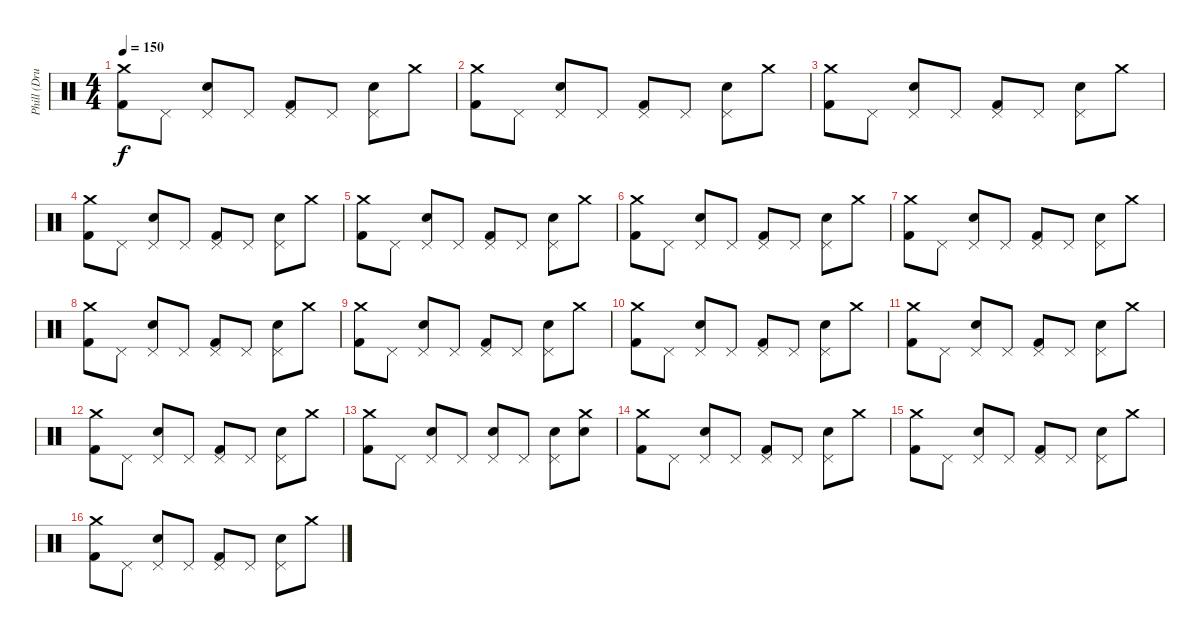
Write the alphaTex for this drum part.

\track ("Phill (Drums)" "Phill (Dru") {instrument percussion}
\staff {score}
\articulation defaults
\ts (4 4)
\tempo 150
\clef neutral
\ks c
("Kick (hit) 2" "Crash medium (hit)").8{dy f} "Pedal Hi-Hat (hit)".8 ("Snare (hit) 2" "Pedal Hi-Hat (hit)").8 "Pedal Hi-Hat (hit)".8 ("Kick (hit) 2" "Pedal Hi-Hat (hit)").8 "Pedal Hi-Hat (hit)".8 ("Snare (hit) 2" "Pedal Hi-Hat (hit)").8 "Crash medium (hit)".8 |
("Kick (hit) 2" "Crash medium (hit)").8 "Pedal Hi-Hat (hit)".8 ("Snare (hit) 2" "Pedal Hi-Hat (hit)").8 "Pedal Hi-Hat (hit)".8 ("Kick (hit) 2" "Pedal Hi-Hat (hit)").8 "Pedal Hi-Hat (hit)".8 ("Snare (hit) 2" "Pedal Hi-Hat (hit)").8 "Crash medium (hit)".8 |
("Kick (hit) 2" "Crash medium (hit)").8 "Pedal Hi-Hat (hit)".8 ("Snare (hit) 2" "Pedal Hi-Hat (hit)").8 "Pedal Hi-Hat (hit)".8 ("Kick (hit) 2" "Pedal Hi-Hat (hit)").8 "Pedal Hi-Hat (hit)".8 ("Snare (hit) 2" "Pedal Hi-Hat (hit)").8 "Crash medium (hit)".8 |
("Kick (hit) 2" "Crash medium (hit)").8 "Pedal Hi-Hat (hit)".8 ("Snare (hit) 2" "Pedal Hi-Hat (hit)").8 "Pedal Hi-Hat (hit)".8 ("Kick (hit) 2" "Pedal Hi-Hat (hit)").8 "Pedal Hi-Hat (hit)".8 ("Snare (hit) 2" "Pedal Hi-Hat (hit)").8 "Crash medium (hit)".8 |
("Kick (hit) 2" "Crash medium (hit)").8 "Pedal Hi-Hat (hit)".8 ("Snare (hit) 2" "Pedal Hi-Hat (hit)").8 "Pedal Hi-Hat (hit)".8 ("Kick (hit) 2" "Pedal Hi-Hat (hit)").8 "Pedal Hi-Hat (hit)".8 ("Snare (hit) 2" "Pedal Hi-Hat (hit)").8 "Crash medium (hit)".8 |
("Kick (hit) 2" "Crash medium (hit)").8 "Pedal Hi-Hat (hit)".8 ("Snare (hit) 2" "Pedal Hi-Hat (hit)").8 "Pedal Hi-Hat (hit)".8 ("Kick (hit) 2" "Pedal Hi-Hat (hit)").8 "Pedal Hi-Hat (hit)".8 ("Snare (hit) 2" "Pedal Hi-Hat (hit)").8 "Crash medium (hit)".8 |
("Kick (hit) 2" "Crash medium (hit)").8 "Pedal Hi-Hat (hit)".8 ("Snare (hit) 2" "Pedal Hi-Hat (hit)").8 "Pedal Hi-Hat (hit)".8 ("Kick (hit) 2" "Pedal Hi-Hat (hit)").8 "Pedal Hi-Hat (hit)".8 ("Snare (hit) 2" "Pedal Hi-Hat (hit)").8 "Crash medium (hit)".8 |
("Kick (hit) 2" "Crash medium (hit)").8 "Pedal Hi-Hat (hit)".8 ("Snare (hit) 2" "Pedal Hi-Hat (hit)").8 "Pedal Hi-Hat (hit)".8 ("Kick (hit) 2" "Pedal Hi-Hat (hit)").8 "Pedal Hi-Hat (hit)".8 ("Snare (hit) 2" "Pedal Hi-Hat (hit)").8 "Crash medium (hit)".8 |
("Kick (hit) 2" "Crash medium (hit)").8 "Pedal Hi-Hat (hit)".8 ("Snare (hit) 2" "Pedal Hi-Hat (hit)").8 "Pedal Hi-Hat (hit)".8 ("Kick (hit) 2" "Pedal Hi-Hat (hit)").8 "Pedal Hi-Hat (hit)".8 ("Snare (hit) 2" "Pedal Hi-Hat (hit)").8 "Crash medium (hit)".8 |
("Kick (hit) 2" "Crash medium (hit)").8 "Pedal Hi-Hat (hit)".8 ("Snare (hit) 2" "Pedal Hi-Hat (hit)").8 "Pedal Hi-Hat (hit)".8 ("Kick (hit) 2" "Pedal Hi-Hat (hit)").8 "Pedal Hi-Hat (hit)".8 ("Snare (hit) 2" "Pedal Hi-Hat (hit)").8 "Crash medium (hit)".8 |
("Kick (hit) 2" "Crash medium (hit)").8 "Pedal Hi-Hat (hit)".8 ("Snare (hit) 2" "Pedal Hi-Hat (hit)").8 "Pedal Hi-Hat (hit)".8 ("Kick (hit) 2" "Pedal Hi-Hat (hit)").8 "Pedal Hi-Hat (hit)".8 ("Snare (hit) 2" "Pedal Hi-Hat (hit)").8 "Crash medium (hit)".8 |
("Kick (hit) 2" "Crash medium (hit)").8 "Pedal Hi-Hat (hit)".8 ("Snare (hit) 2" "Pedal Hi-Hat (hit)").8 "Pedal Hi-Hat (hit)".8 ("Kick (hit) 2" "Pedal Hi-Hat (hit)").8 "Pedal Hi-Hat (hit)".8 ("Snare (hit) 2" "Pedal Hi-Hat (hit)").8 "Crash medium (hit)".8 |
("Kick (hit) 2" "Crash medium (hit)").8 "Pedal Hi-Hat (hit)".8 ("Snare (hit) 2" "Pedal Hi-Hat (hit)").8 "Pedal Hi-Hat (hit)".8 ("Snare (hit) 2" "Pedal Hi-Hat (hit)").8 "Pedal Hi-Hat (hit)".8 ("Snare (hit) 2" "Pedal Hi-Hat (hit)").8 ("Snare (hit) 2" "Crash medium (hit)").8 |
("Kick (hit) 2" "Crash medium (hit)").8 "Pedal Hi-Hat (hit)".8 ("Snare (hit) 2" "Pedal Hi-Hat (hit)").8 "Pedal Hi-Hat (hit)".8 ("Kick (hit) 2" "Pedal Hi-Hat (hit)").8 "Pedal Hi-Hat (hit)".8 ("Snare (hit) 2" "Pedal Hi-Hat (hit)").8 "Crash medium (hit)".8 |
("Kick (hit) 2" "Crash medium (hit)").8 "Pedal Hi-Hat (hit)".8 ("Snare (hit) 2" "Pedal Hi-Hat (hit)").8 "Pedal Hi-Hat (hit)".8 ("Kick (hit) 2" "Pedal Hi-Hat (hit)").8 "Pedal Hi-Hat (hit)".8 ("Snare (hit) 2" "Pedal Hi-Hat (hit)").8 "Crash medium (hit)".8 |
("Kick (hit) 2" "Crash medium (hit)").8 "Pedal Hi-Hat (hit)".8 ("Snare (hit) 2" "Pedal Hi-Hat (hit)").8 "Pedal Hi-Hat (hit)".8 ("Kick (hit) 2" "Pedal Hi-Hat (hit)").8 "Pedal Hi-Hat (hit)".8 ("Snare (hit) 2" "Pedal Hi-Hat (hit)").8 "Crash medium (hit)".8
